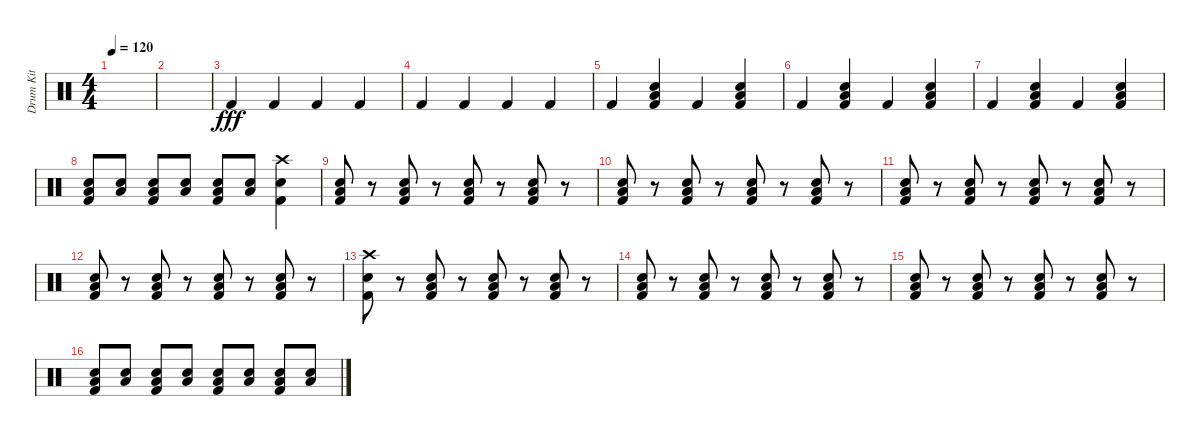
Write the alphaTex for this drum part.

\track ("Drum Kit" "Drum Kit") {instrument percussion}
\staff {score}
\articulation defaults
\ts (4 4)
\tempo 120
\clef neutral
\ks c
|
|
"Kick (hit) 2".4{dy fff} "Kick (hit) 2".4 "Kick (hit) 2".4 "Kick (hit) 2".4 |
"Kick (hit) 2".4 "Kick (hit) 2".4 "Kick (hit) 2".4 "Kick (hit) 2".4 |
"Kick (hit) 2".4 ("Low Floor Tom (hit)" "Snare (hit) 2" "Kick (hit) 2").4 "Kick (hit) 2".4 ("Low Floor Tom (hit)" "Snare (hit) 2" "Kick (hit) 2").4 |
"Kick (hit) 2".4 ("Low Floor Tom (hit)" "Snare (hit) 2" "Kick (hit) 2").4 "Kick (hit) 2".4 ("Low Floor Tom (hit)" "Snare (hit) 2" "Kick (hit) 2").4 |
"Kick (hit) 2".4 ("Low Floor Tom (hit)" "Snare (hit) 2" "Kick (hit) 2").4 "Kick (hit) 2".4 ("Low Floor Tom (hit)" "Snare (hit) 2" "Kick (hit) 2").4 |
("Low Floor Tom (hit)" "Snare (hit) 2" "Kick (hit) 2").8 ("Low Floor Tom (hit)" "Snare (hit) 2").8 ("Low Floor Tom (hit)" "Snare (hit) 2" "Kick (hit) 2").8 ("Low Floor Tom (hit)" "Snare (hit) 2").8 ("Low Floor Tom (hit)" "Snare (hit) 2" "Kick (hit) 2").8 ("Low Floor Tom (hit)" "Snare (hit) 2").8 ("Crash high (hit)" "Snare (hit) 2" "Kick (hit) 2").4 |
("Low Floor Tom (hit)" "Snare (hit) 2" "Kick (hit) 2").8 r.8 ("Low Floor Tom (hit)" "Snare (hit) 2" "Kick (hit) 2").8 r.8 ("Low Floor Tom (hit)" "Snare (hit) 2" "Kick (hit) 2").8 r.8 ("Low Floor Tom (hit)" "Snare (hit) 2" "Kick (hit) 2").8 r.8 |
("Low Floor Tom (hit)" "Snare (hit) 2" "Kick (hit) 2").8 r.8 ("Low Floor Tom (hit)" "Snare (hit) 2" "Kick (hit) 2").8 r.8 ("Low Floor Tom (hit)" "Snare (hit) 2" "Kick (hit) 2").8 r.8 ("Low Floor Tom (hit)" "Snare (hit) 2" "Kick (hit) 2").8 r.8 |
("Low Floor Tom (hit)" "Snare (hit) 2" "Kick (hit) 2").8 r.8 ("Low Floor Tom (hit)" "Snare (hit) 2" "Kick (hit) 2").8 r.8 ("Low Floor Tom (hit)" "Snare (hit) 2" "Kick (hit) 2").8 r.8 ("Low Floor Tom (hit)" "Snare (hit) 2" "Kick (hit) 2").8 r.8 |
("Low Floor Tom (hit)" "Snare (hit) 2" "Kick (hit) 2").8 r.8 ("Low Floor Tom (hit)" "Snare (hit) 2" "Kick (hit) 2").8 r.8 ("Low Floor Tom (hit)" "Snare (hit) 2" "Kick (hit) 2").8 r.8 ("Low Floor Tom (hit)" "Snare (hit) 2" "Kick (hit) 2").8 r.8 |
("Crash high (hit)" "Snare (hit) 2" "Kick (hit) 2").8 r.8 ("Low Floor Tom (hit)" "Snare (hit) 2" "Kick (hit) 2").8 r.8 ("Low Floor Tom (hit)" "Snare (hit) 2" "Kick (hit) 2").8 r.8 ("Low Floor Tom (hit)" "Snare (hit) 2" "Kick (hit) 2").8 r.8 |
("Low Floor Tom (hit)" "Snare (hit) 2" "Kick (hit) 2").8 r.8 ("Low Floor Tom (hit)" "Snare (hit) 2" "Kick (hit) 2").8 r.8 ("Low Floor Tom (hit)" "Snare (hit) 2" "Kick (hit) 2").8 r.8 ("Low Floor Tom (hit)" "Snare (hit) 2" "Kick (hit) 2").8 r.8 |
("Low Floor Tom (hit)" "Snare (hit) 2" "Kick (hit) 2").8 r.8 ("Low Floor Tom (hit)" "Snare (hit) 2" "Kick (hit) 2").8 r.8 ("Low Floor Tom (hit)" "Snare (hit) 2" "Kick (hit) 2").8 r.8 ("Low Floor Tom (hit)" "Snare (hit) 2" "Kick (hit) 2").8 r.8 |
("Low Floor Tom (hit)" "Snare (hit) 2" "Kick (hit) 2").8 ("Low Floor Tom (hit)" "Snare (hit) 2").8 ("Low Floor Tom (hit)" "Snare (hit) 2" "Kick (hit) 2").8 ("Low Floor Tom (hit)" "Snare (hit) 2").8 ("Low Floor Tom (hit)" "Snare (hit) 2" "Kick (hit) 2").8 ("Low Floor Tom (hit)" "Snare (hit) 2").8 ("Low Floor Tom (hit)" "Snare (hit) 2" "Kick (hit) 2").8 ("Low Floor Tom (hit)" "Snare (hit) 2").8
